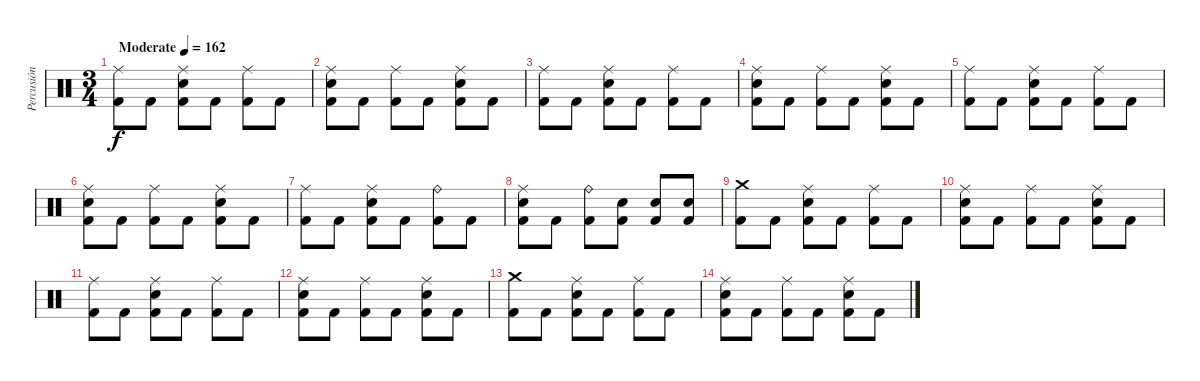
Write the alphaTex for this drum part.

\track ("Percusión" "Percusión") {instrument percussion}
\staff {score}
\articulation defaults
\ts (3 4)
\tempo (162 "Moderate")
\clef neutral
\ks c
("Ride (middle)" "Kick (hit) 2").8{dy f} "Kick (hit) 2".8 ("Ride (middle)" "Snare (hit) 2" "Kick (hit) 2").8 "Kick (hit) 2".8 ("Ride (middle)" "Kick (hit) 2").8 "Kick (hit) 2".8 |
("Ride (middle)" "Snare (hit) 2" "Kick (hit) 2").8 "Kick (hit) 2".8 ("Ride (middle)" "Kick (hit) 2").8 "Kick (hit) 2".8 ("Ride (middle)" "Snare (hit) 2" "Kick (hit) 2").8 "Kick (hit) 2".8 |
("Ride (middle)" "Kick (hit) 2").8 "Kick (hit) 2".8 ("Ride (middle)" "Snare (hit) 2" "Kick (hit) 2").8 "Kick (hit) 2".8 ("Ride (middle)" "Kick (hit) 2").8 "Kick (hit) 2".8 |
("Ride (middle)" "Snare (hit) 2" "Kick (hit) 2").8 "Kick (hit) 2".8 ("Ride (middle)" "Kick (hit) 2").8 "Kick (hit) 2".8 ("Ride (middle)" "Snare (hit) 2" "Kick (hit) 2").8 "Kick (hit) 2".8 |
("Ride (middle)" "Kick (hit) 2").8 "Kick (hit) 2".8 ("Ride (middle)" "Snare (hit) 2" "Kick (hit) 2").8 "Kick (hit) 2".8 ("Ride (middle)" "Kick (hit) 2").8 "Kick (hit) 2".8 |
("Ride (middle)" "Snare (hit) 2" "Kick (hit) 2").8 "Kick (hit) 2".8 ("Ride (middle)" "Kick (hit) 2").8 "Kick (hit) 2".8 ("Ride (middle)" "Snare (hit) 2" "Kick (hit) 2").8 "Kick (hit) 2".8 |
("Ride (middle)" "Kick (hit) 2").8 "Kick (hit) 2".8 ("Ride (middle)" "Snare (hit) 2" "Kick (hit) 2").8 "Kick (hit) 2".8 ("Ride (bell)" "Kick (hit) 2").8 "Kick (hit) 2".8 |
("Ride (middle)" "Snare (hit) 2" "Kick (hit) 2").8 "Kick (hit) 2".8 ("Ride (bell)" "Kick (hit) 2").8 ("Snare (hit) 2" "Kick (hit) 2").8 ("Snare (hit) 2" "Kick (hit) 2").8 ("Snare (hit) 2" "Kick (hit) 2").8 |
("Crash medium (hit)" "Kick (hit) 2").8 "Kick (hit) 2".8 ("Ride (middle)" "Snare (hit) 2" "Kick (hit) 2").8 "Kick (hit) 2".8 ("Ride (middle)" "Kick (hit) 2").8 "Kick (hit) 2".8 |
("Ride (middle)" "Snare (hit) 2" "Kick (hit) 2").8 "Kick (hit) 2".8 ("Ride (middle)" "Kick (hit) 2").8 "Kick (hit) 2".8 ("Ride (middle)" "Snare (hit) 2" "Kick (hit) 2").8 "Kick (hit) 2".8 |
("Ride (middle)" "Kick (hit) 2").8 "Kick (hit) 2".8 ("Ride (middle)" "Snare (hit) 2" "Kick (hit) 2").8 "Kick (hit) 2".8 ("Ride (middle)" "Kick (hit) 2").8 "Kick (hit) 2".8 |
("Ride (middle)" "Snare (hit) 2" "Kick (hit) 2").8 "Kick (hit) 2".8 ("Ride (middle)" "Kick (hit) 2").8 "Kick (hit) 2".8 ("Ride (middle)" "Snare (hit) 2" "Kick (hit) 2").8 "Kick (hit) 2".8 |
("Crash medium (hit)" "Kick (hit) 2").8 "Kick (hit) 2".8 ("Ride (middle)" "Snare (hit) 2" "Kick (hit) 2").8 "Kick (hit) 2".8 ("Ride (middle)" "Kick (hit) 2").8 "Kick (hit) 2".8 |
("Ride (middle)" "Snare (hit) 2" "Kick (hit) 2").8 "Kick (hit) 2".8 ("Ride (middle)" "Kick (hit) 2").8 "Kick (hit) 2".8 ("Ride (middle)" "Snare (hit) 2" "Kick (hit) 2").8 "Kick (hit) 2".8
